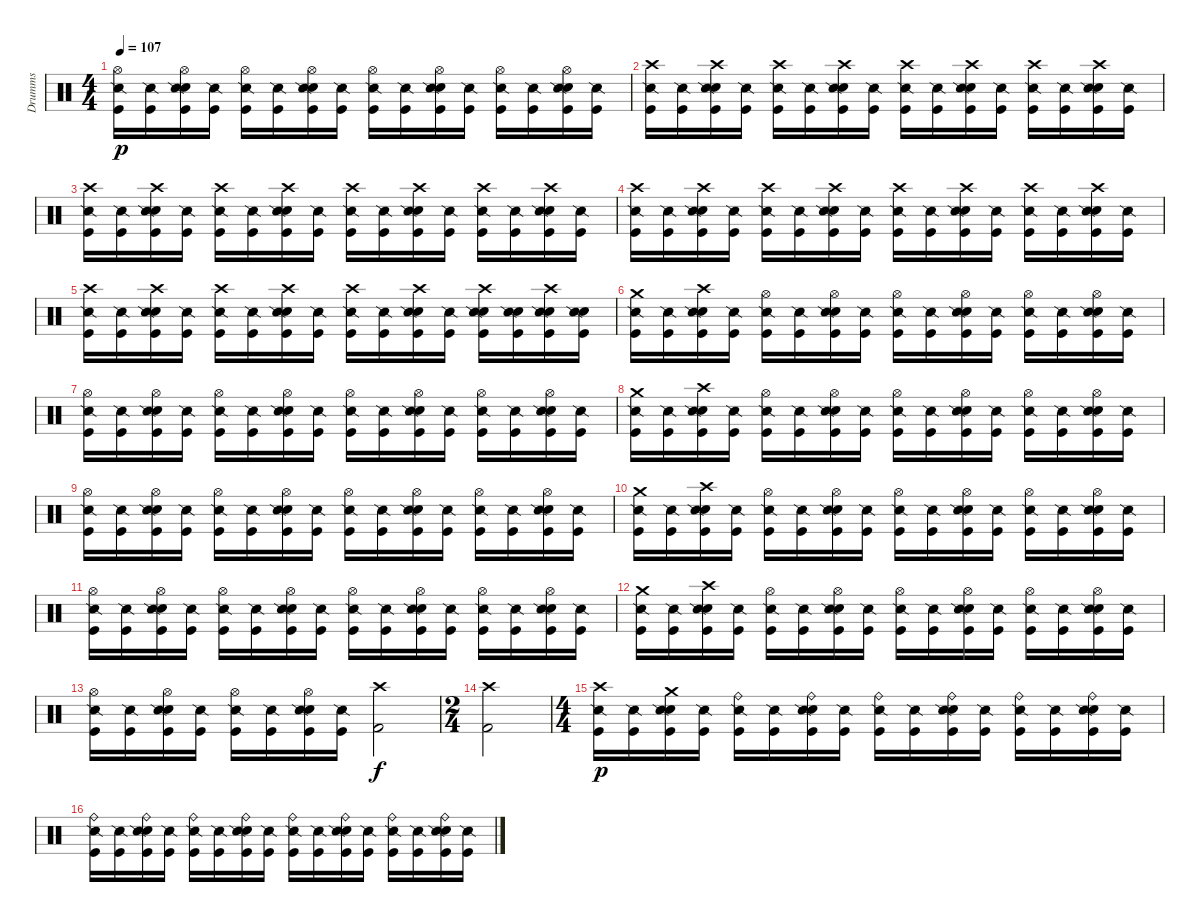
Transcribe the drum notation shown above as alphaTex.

\track ("Drumms" "Drumms") {instrument percussion}
\staff {score}
\articulation defaults
\ts (4 4)
\tempo 107
\clef neutral
\ks c
("Hi-Hat (open)" "Snare (side stick) 2" "Kick (hit)").16{dy p} ("Snare (side stick) 2" "Kick (hit)").16 ("Hi-Hat (open)" "Electric Snare (hit)" "Snare (side stick) 2" "Kick (hit)").16 ("Snare (side stick) 2" "Kick (hit)").16 ("Hi-Hat (open)" "Snare (side stick) 2" "Kick (hit)").16 ("Snare (side stick) 2" "Kick (hit)").16 ("Hi-Hat (open)" "Electric Snare (hit)" "Snare (side stick) 2" "Kick (hit)").16 ("Snare (side stick) 2" "Kick (hit)").16 ("Hi-Hat (open)" "Snare (side stick) 2" "Kick (hit)").16 ("Snare (side stick) 2" "Kick (hit)").16 ("Hi-Hat (open)" "Electric Snare (hit)" "Snare (side stick) 2" "Kick (hit)").16 ("Snare (side stick) 2" "Kick (hit)").16 ("Hi-Hat (open)" "Snare (side stick) 2" "Kick (hit)").16 ("Snare (side stick) 2" "Kick (hit)").16 ("Hi-Hat (open)" "Electric Snare (hit)" "Snare (side stick) 2" "Kick (hit)").16 ("Snare (side stick) 2" "Kick (hit)").16 |
\section ("" "")
("Crash high (hit)" "Snare (side stick) 2" "Kick (hit)").16 ("Snare (side stick) 2" "Kick (hit)").16 ("Crash high (hit)" "Electric Snare (hit)" "Snare (side stick) 2" "Kick (hit)").16 ("Snare (side stick) 2" "Kick (hit)").16 ("Crash high (hit)" "Snare (side stick) 2" "Kick (hit)").16 ("Snare (side stick) 2" "Kick (hit)").16 ("Crash high (hit)" "Electric Snare (hit)" "Snare (side stick) 2" "Kick (hit)").16 ("Snare (side stick) 2" "Kick (hit)").16 ("Crash high (hit)" "Snare (side stick) 2" "Kick (hit)").16 ("Snare (side stick) 2" "Kick (hit)").16 ("Crash high (hit)" "Electric Snare (hit)" "Snare (side stick) 2" "Kick (hit)").16 ("Snare (side stick) 2" "Kick (hit)").16 ("Crash high (hit)" "Snare (side stick) 2" "Kick (hit)").16 ("Snare (side stick) 2" "Kick (hit)").16 ("Crash high (hit)" "Electric Snare (hit)" "Snare (side stick) 2" "Kick (hit)").16 ("Snare (side stick) 2" "Kick (hit)").16 |
("Crash high (hit)" "Snare (side stick) 2" "Kick (hit)").16 ("Snare (side stick) 2" "Kick (hit)").16 ("Crash high (hit)" "Electric Snare (hit)" "Snare (side stick) 2" "Kick (hit)").16 ("Snare (side stick) 2" "Kick (hit)").16 ("Crash high (hit)" "Snare (side stick) 2" "Kick (hit)").16 ("Snare (side stick) 2" "Kick (hit)").16 ("Crash high (hit)" "Electric Snare (hit)" "Snare (side stick) 2" "Kick (hit)").16 ("Snare (side stick) 2" "Kick (hit)").16 ("Crash high (hit)" "Snare (side stick) 2" "Kick (hit)").16 ("Snare (side stick) 2" "Kick (hit)").16 ("Crash high (hit)" "Electric Snare (hit)" "Snare (side stick) 2" "Kick (hit)").16 ("Snare (side stick) 2" "Kick (hit)").16 ("Crash high (hit)" "Snare (side stick) 2" "Kick (hit)").16 ("Snare (side stick) 2" "Kick (hit)").16 ("Crash high (hit)" "Electric Snare (hit)" "Snare (side stick) 2" "Kick (hit)").16 ("Snare (side stick) 2" "Kick (hit)").16 |
("Crash high (hit)" "Snare (side stick) 2" "Kick (hit)").16 ("Snare (side stick) 2" "Kick (hit)").16 ("Crash high (hit)" "Electric Snare (hit)" "Snare (side stick) 2" "Kick (hit)").16 ("Snare (side stick) 2" "Kick (hit)").16 ("Crash high (hit)" "Snare (side stick) 2" "Kick (hit)").16 ("Snare (side stick) 2" "Kick (hit)").16 ("Crash high (hit)" "Electric Snare (hit)" "Snare (side stick) 2" "Kick (hit)").16 ("Snare (side stick) 2" "Kick (hit)").16 ("Crash high (hit)" "Snare (side stick) 2" "Kick (hit)").16 ("Snare (side stick) 2" "Kick (hit)").16 ("Crash high (hit)" "Electric Snare (hit)" "Snare (side stick) 2" "Kick (hit)").16 ("Snare (side stick) 2" "Kick (hit)").16 ("Crash high (hit)" "Snare (side stick) 2" "Kick (hit)").16 ("Snare (side stick) 2" "Kick (hit)").16 ("Crash high (hit)" "Electric Snare (hit)" "Snare (side stick) 2" "Kick (hit)").16 ("Snare (side stick) 2" "Kick (hit)").16 |
("Crash high (hit)" "Snare (side stick) 2" "Kick (hit)").16 ("Snare (side stick) 2" "Kick (hit)").16 ("Crash high (hit)" "Electric Snare (hit)" "Snare (side stick) 2" "Kick (hit)").16 ("Snare (side stick) 2" "Kick (hit)").16 ("Crash high (hit)" "Snare (side stick) 2" "Kick (hit)").16 ("Snare (side stick) 2" "Kick (hit)").16 ("Crash high (hit)" "Electric Snare (hit)" "Snare (side stick) 2" "Kick (hit)").16 ("Snare (side stick) 2" "Kick (hit)").16 ("Crash high (hit)" "Snare (side stick) 2" "Kick (hit)").16 ("Snare (side stick) 2" "Kick (hit)").16 ("Crash high (hit)" "Electric Snare (hit)" "Snare (side stick) 2" "Kick (hit)").16 ("Snare (side stick) 2" "Kick (hit)").16 ("Crash high (hit)" "Electric Snare (hit)" "Snare (side stick) 2" "Kick (hit)").16 ("Electric Snare (hit)" "Snare (side stick) 2" "Kick (hit)").16 ("Crash high (hit)" "Electric Snare (hit)" "Snare (side stick) 2" "Kick (hit)").16 ("Electric Snare (hit)" "Snare (side stick) 2" "Kick (hit)").16 |
\section ("" "")
("Crash medium (hit)" "Snare (side stick) 2" "Kick (hit)").16 ("Snare (side stick) 2" "Kick (hit)").16 ("Crash high (hit)" "Electric Snare (hit)" "Snare (side stick) 2" "Kick (hit)").16 ("Snare (side stick) 2" "Kick (hit)").16 ("Hi-Hat (open)" "Snare (side stick) 2" "Kick (hit)").16 ("Snare (side stick) 2" "Kick (hit)").16 ("Hi-Hat (open)" "Electric Snare (hit)" "Snare (side stick) 2" "Kick (hit)").16 ("Snare (side stick) 2" "Kick (hit)").16 ("Hi-Hat (open)" "Snare (side stick) 2" "Kick (hit)").16 ("Snare (side stick) 2" "Kick (hit)").16 ("Hi-Hat (open)" "Electric Snare (hit)" "Snare (side stick) 2" "Kick (hit)").16 ("Snare (side stick) 2" "Kick (hit)").16 ("Hi-Hat (open)" "Snare (side stick) 2" "Kick (hit)").16 ("Snare (side stick) 2" "Kick (hit)").16 ("Hi-Hat (open)" "Electric Snare (hit)" "Snare (side stick) 2" "Kick (hit)").16 ("Snare (side stick) 2" "Kick (hit)").16 |
("Hi-Hat (open)" "Snare (side stick) 2" "Kick (hit)").16 ("Snare (side stick) 2" "Kick (hit)").16 ("Hi-Hat (open)" "Electric Snare (hit)" "Snare (side stick) 2" "Kick (hit)").16 ("Snare (side stick) 2" "Kick (hit)").16 ("Hi-Hat (open)" "Snare (side stick) 2" "Kick (hit)").16 ("Snare (side stick) 2" "Kick (hit)").16 ("Hi-Hat (open)" "Electric Snare (hit)" "Snare (side stick) 2" "Kick (hit)").16 ("Snare (side stick) 2" "Kick (hit)").16 ("Hi-Hat (open)" "Snare (side stick) 2" "Kick (hit)").16 ("Snare (side stick) 2" "Kick (hit)").16 ("Hi-Hat (open)" "Electric Snare (hit)" "Snare (side stick) 2" "Kick (hit)").16 ("Snare (side stick) 2" "Kick (hit)").16 ("Hi-Hat (open)" "Snare (side stick) 2" "Kick (hit)").16 ("Snare (side stick) 2" "Kick (hit)").16 ("Hi-Hat (open)" "Electric Snare (hit)" "Snare (side stick) 2" "Kick (hit)").16 ("Snare (side stick) 2" "Kick (hit)").16 |
("Crash medium (hit)" "Snare (side stick) 2" "Kick (hit)").16 ("Snare (side stick) 2" "Kick (hit)").16 ("Crash high (hit)" "Electric Snare (hit)" "Snare (side stick) 2" "Kick (hit)").16 ("Snare (side stick) 2" "Kick (hit)").16 ("Hi-Hat (open)" "Snare (side stick) 2" "Kick (hit)").16 ("Snare (side stick) 2" "Kick (hit)").16 ("Hi-Hat (open)" "Electric Snare (hit)" "Snare (side stick) 2" "Kick (hit)").16 ("Snare (side stick) 2" "Kick (hit)").16 ("Hi-Hat (open)" "Snare (side stick) 2" "Kick (hit)").16 ("Snare (side stick) 2" "Kick (hit)").16 ("Hi-Hat (open)" "Electric Snare (hit)" "Snare (side stick) 2" "Kick (hit)").16 ("Snare (side stick) 2" "Kick (hit)").16 ("Hi-Hat (open)" "Snare (side stick) 2" "Kick (hit)").16 ("Snare (side stick) 2" "Kick (hit)").16 ("Hi-Hat (open)" "Electric Snare (hit)" "Snare (side stick) 2" "Kick (hit)").16 ("Snare (side stick) 2" "Kick (hit)").16 |
("Hi-Hat (open)" "Snare (side stick) 2" "Kick (hit)").16 ("Snare (side stick) 2" "Kick (hit)").16 ("Hi-Hat (open)" "Electric Snare (hit)" "Snare (side stick) 2" "Kick (hit)").16 ("Snare (side stick) 2" "Kick (hit)").16 ("Hi-Hat (open)" "Snare (side stick) 2" "Kick (hit)").16 ("Snare (side stick) 2" "Kick (hit)").16 ("Hi-Hat (open)" "Electric Snare (hit)" "Snare (side stick) 2" "Kick (hit)").16 ("Snare (side stick) 2" "Kick (hit)").16 ("Hi-Hat (open)" "Snare (side stick) 2" "Kick (hit)").16 ("Snare (side stick) 2" "Kick (hit)").16 ("Hi-Hat (open)" "Electric Snare (hit)" "Snare (side stick) 2" "Kick (hit)").16 ("Snare (side stick) 2" "Kick (hit)").16 ("Hi-Hat (open)" "Snare (side stick) 2" "Kick (hit)").16 ("Snare (side stick) 2" "Kick (hit)").16 ("Hi-Hat (open)" "Electric Snare (hit)" "Snare (side stick) 2" "Kick (hit)").16 ("Snare (side stick) 2" "Kick (hit)").16 |
("Crash medium (hit)" "Snare (side stick) 2" "Kick (hit)").16 ("Snare (side stick) 2" "Kick (hit)").16 ("Crash high (hit)" "Electric Snare (hit)" "Snare (side stick) 2" "Kick (hit)").16 ("Snare (side stick) 2" "Kick (hit)").16 ("Hi-Hat (open)" "Snare (side stick) 2" "Kick (hit)").16 ("Snare (side stick) 2" "Kick (hit)").16 ("Hi-Hat (open)" "Electric Snare (hit)" "Snare (side stick) 2" "Kick (hit)").16 ("Snare (side stick) 2" "Kick (hit)").16 ("Hi-Hat (open)" "Snare (side stick) 2" "Kick (hit)").16 ("Snare (side stick) 2" "Kick (hit)").16 ("Hi-Hat (open)" "Electric Snare (hit)" "Snare (side stick) 2" "Kick (hit)").16 ("Snare (side stick) 2" "Kick (hit)").16 ("Hi-Hat (open)" "Snare (side stick) 2" "Kick (hit)").16 ("Snare (side stick) 2" "Kick (hit)").16 ("Hi-Hat (open)" "Electric Snare (hit)" "Snare (side stick) 2" "Kick (hit)").16 ("Snare (side stick) 2" "Kick (hit)").16 |
("Hi-Hat (open)" "Snare (side stick) 2" "Kick (hit)").16 ("Snare (side stick) 2" "Kick (hit)").16 ("Hi-Hat (open)" "Electric Snare (hit)" "Snare (side stick) 2" "Kick (hit)").16 ("Snare (side stick) 2" "Kick (hit)").16 ("Hi-Hat (open)" "Snare (side stick) 2" "Kick (hit)").16 ("Snare (side stick) 2" "Kick (hit)").16 ("Hi-Hat (open)" "Electric Snare (hit)" "Snare (side stick) 2" "Kick (hit)").16 ("Snare (side stick) 2" "Kick (hit)").16 ("Hi-Hat (open)" "Snare (side stick) 2" "Kick (hit)").16 ("Snare (side stick) 2" "Kick (hit)").16 ("Hi-Hat (open)" "Electric Snare (hit)" "Snare (side stick) 2" "Kick (hit)").16 ("Snare (side stick) 2" "Kick (hit)").16 ("Hi-Hat (open)" "Snare (side stick) 2" "Kick (hit)").16 ("Snare (side stick) 2" "Kick (hit)").16 ("Hi-Hat (open)" "Electric Snare (hit)" "Snare (side stick) 2" "Kick (hit)").16 ("Snare (side stick) 2" "Kick (hit)").16 |
("Crash medium (hit)" "Snare (side stick) 2" "Kick (hit)").16 ("Snare (side stick) 2" "Kick (hit)").16 ("Crash high (hit)" "Electric Snare (hit)" "Snare (side stick) 2" "Kick (hit)").16 ("Snare (side stick) 2" "Kick (hit)").16 ("Hi-Hat (open)" "Snare (side stick) 2" "Kick (hit)").16 ("Snare (side stick) 2" "Kick (hit)").16 ("Hi-Hat (open)" "Electric Snare (hit)" "Snare (side stick) 2" "Kick (hit)").16 ("Snare (side stick) 2" "Kick (hit)").16 ("Hi-Hat (open)" "Snare (side stick) 2" "Kick (hit)").16 ("Snare (side stick) 2" "Kick (hit)").16 ("Hi-Hat (open)" "Electric Snare (hit)" "Snare (side stick) 2" "Kick (hit)").16 ("Snare (side stick) 2" "Kick (hit)").16 ("Hi-Hat (open)" "Snare (side stick) 2" "Kick (hit)").16 ("Snare (side stick) 2" "Kick (hit)").16 ("Hi-Hat (open)" "Electric Snare (hit)" "Snare (side stick) 2" "Kick (hit)").16 ("Snare (side stick) 2" "Kick (hit)").16 |
("Hi-Hat (open)" "Snare (side stick) 2" "Kick (hit)").16 ("Snare (side stick) 2" "Kick (hit)").16 ("Hi-Hat (open)" "Electric Snare (hit)" "Snare (side stick) 2" "Kick (hit)").16 ("Snare (side stick) 2" "Kick (hit)").16 ("Hi-Hat (open)" "Snare (side stick) 2" "Kick (hit)").16 ("Snare (side stick) 2" "Kick (hit)").16 ("Hi-Hat (open)" "Electric Snare (hit)" "Snare (side stick) 2" "Kick (hit)").16 ("Snare (side stick) 2" "Kick (hit)").16 ("Crash high (hit)" "Kick (hit) 2").2{dy f} |
\ts (2 4)
("Crash high (hit)" "Kick (hit) 2").2 |
\ts (4 4)
\section ("" "")
("Crash high (hit)" "Snare (side stick) 2" "Kick (hit)").16{dy p} ("Snare (side stick) 2" "Kick (hit)").16 ("Crash medium (hit)" "Electric Snare (hit)" "Snare (side stick) 2" "Kick (hit)").16 ("Snare (side stick) 2" "Kick (hit)").16 ("Ride (bell)" "Snare (side stick) 2" "Kick (hit)").16 ("Snare (side stick) 2" "Kick (hit)").16 ("Ride (bell)" "Electric Snare (hit)" "Snare (side stick) 2" "Kick (hit)").16 ("Snare (side stick) 2" "Kick (hit)").16 ("Ride (bell)" "Snare (side stick) 2" "Kick (hit)").16 ("Snare (side stick) 2" "Kick (hit)").16 ("Ride (bell)" "Electric Snare (hit)" "Snare (side stick) 2" "Kick (hit)").16 ("Snare (side stick) 2" "Kick (hit)").16 ("Ride (bell)" "Snare (side stick) 2" "Kick (hit)").16 ("Snare (side stick) 2" "Kick (hit)").16 ("Ride (bell)" "Electric Snare (hit)" "Snare (side stick) 2" "Kick (hit)").16 ("Snare (side stick) 2" "Kick (hit)").16 |
("Ride (bell)" "Snare (side stick) 2" "Kick (hit)").16 ("Snare (side stick) 2" "Kick (hit)").16 ("Ride (bell)" "Electric Snare (hit)" "Snare (side stick) 2" "Kick (hit)").16 ("Snare (side stick) 2" "Kick (hit)").16 ("Ride (bell)" "Snare (side stick) 2" "Kick (hit)").16 ("Snare (side stick) 2" "Kick (hit)").16 ("Ride (bell)" "Electric Snare (hit)" "Snare (side stick) 2" "Kick (hit)").16 ("Snare (side stick) 2" "Kick (hit)").16 ("Ride (bell)" "Snare (side stick) 2" "Kick (hit)").16 ("Snare (side stick) 2" "Kick (hit)").16 ("Ride (bell)" "Electric Snare (hit)" "Snare (side stick) 2" "Kick (hit)").16 ("Snare (side stick) 2" "Kick (hit)").16 ("Ride (bell)" "Snare (side stick) 2" "Kick (hit)").16 ("Snare (side stick) 2" "Kick (hit)").16 ("Ride (bell)" "Electric Snare (hit)" "Snare (side stick) 2" "Kick (hit)").16 ("Snare (side stick) 2" "Kick (hit)").16
